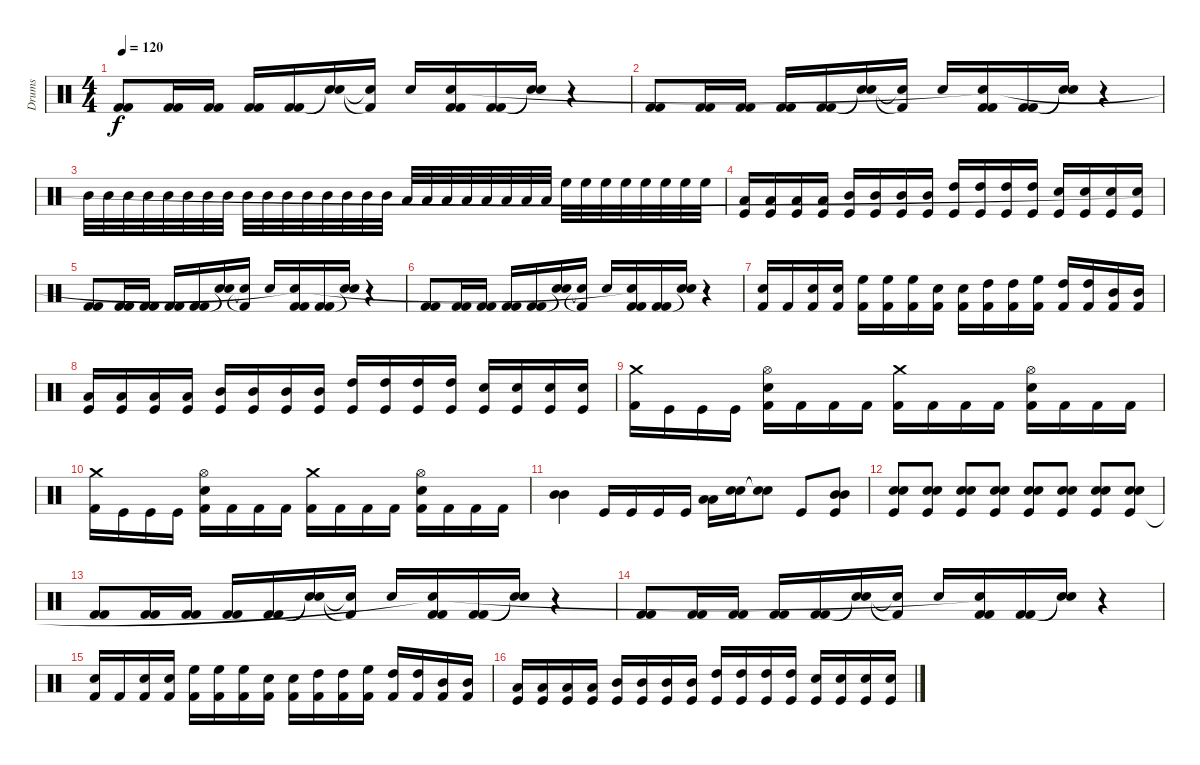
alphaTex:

\track ("Drums" "Drums") {instrument percussion}
\staff {score}
\articulation defaults
\ts (4 4)
\tempo 120
\clef neutral
\ks c
("Kick (hit) 2" "Kick (hit) 2").8{dy f} ("Kick (hit) 2" "Kick (hit) 2").16 ("Kick (hit) 2" "Kick (hit) 2").16 ("Kick (hit) 2" "Kick (hit) 2").16 ("Kick (hit) 2" "Kick (hit) 2").16 ("Snare (hit)"{t} "Snare (hit)"{t}).16 ("Kick (hit) 2"{t} "Snare (hit)"{t}).16 "Snare (hit) 2".16 ("Kick (hit) 2" "Kick (hit) 2" "Snare (hit)").16 ("Kick (hit) 2" "Kick (hit) 2").16 ("Snare (hit)"{t} "Snare (hit)"{t}).16 r.4 |
("Kick (hit) 2" "Kick (hit) 2").8 ("Kick (hit) 2" "Kick (hit) 2").16 ("Kick (hit) 2" "Kick (hit) 2").16 ("Kick (hit) 2" "Kick (hit) 2").16 ("Kick (hit) 2" "Kick (hit) 2").16 ("Snare (hit)"{t} "Snare (hit)"{t}).16 ("Kick (hit) 2"{t} "Snare (hit)"{t}).16 "Snare (hit) 2".16 ("Kick (hit) 2" "Kick (hit) 2" "Snare (hit)"{t}).16 ("Kick (hit) 2" "Kick (hit) 2").16 ("Snare (hit)"{t} "Snare (hit)"{t}).16 r.4 |
"Mid Tom (hit)".32 "Mid Tom (hit)".32 "Mid Tom (hit)".32 "Mid Tom (hit)".32 "Mid Tom (hit)".32 "Mid Tom (hit)".32 "Mid Tom (hit)".32 "Mid Tom (hit)".32 "Mid Tom (hit)".32 "Mid Tom (hit)".32 "Mid Tom (hit)".32 "Mid Tom (hit)".32 "Mid Tom (hit)".32 "Mid Tom (hit)".32 "Mid Tom (hit)".32 "Mid Tom (hit)".32 "Low Tom (hit)".32 "Low Tom (hit)".32 "Low Tom (hit)".32 "Low Tom (hit)".32 "Low Tom (hit)".32 "Low Tom (hit)".32 "Low Tom (hit)".32 "Low Tom (hit)".32 "High Floor Tom (hit)".32 "High Floor Tom (hit)".32 "High Floor Tom (hit)".32 "High Floor Tom (hit)".32 "High Floor Tom (hit)".32 "High Floor Tom (hit)".32 "High Floor Tom (hit)".32 "High Floor Tom (hit)".32 |
("Kick (hit)" "Low Tom (hit)").16 ("Kick (hit)" "Low Tom (hit)").16 ("Kick (hit)" "Low Tom (hit)").16 ("Kick (hit)" "Low Tom (hit)").16 ("Kick (hit)" "Mid Tom (hit)").16 ("Kick (hit)" "Mid Tom (hit)").16 ("Kick (hit)" "Mid Tom (hit)").16 ("Kick (hit)" "Mid Tom (hit)").16 ("Kick (hit)" "High Tom (hit)").16 ("Kick (hit)" "High Tom (hit)").16 ("Kick (hit)" "High Tom (hit)").16 ("Kick (hit)" "High Tom (hit)").16 ("Kick (hit)" "Snare (hit) 2").16 ("Kick (hit)" "Snare (hit) 2").16 ("Kick (hit)" "Snare (hit) 2").16 ("Kick (hit)" "Snare (hit) 2").16 |
("Kick (hit) 2" "Kick (hit) 2").8 ("Kick (hit) 2" "Kick (hit) 2").16 ("Kick (hit) 2" "Kick (hit) 2").16 ("Kick (hit) 2" "Kick (hit) 2").16 ("Kick (hit) 2" "Kick (hit) 2").16 ("Snare (hit)"{t} "Snare (hit)"{t}).16 ("Kick (hit) 2"{t} "Snare (hit)"{t}).16 "Snare (hit) 2".16 ("Kick (hit) 2" "Kick (hit) 2" "Snare (hit)"{t}).16 ("Kick (hit) 2" "Kick (hit) 2").16 ("Snare (hit)"{t} "Snare (hit)"{t}).16 r.4 |
("Kick (hit) 2" "Kick (hit) 2").8 ("Kick (hit) 2" "Kick (hit) 2").16 ("Kick (hit) 2" "Kick (hit) 2").16 ("Kick (hit) 2" "Kick (hit) 2").16 ("Kick (hit) 2" "Kick (hit) 2").16 ("Snare (hit)"{t} "Snare (hit)"{t}).16 ("Kick (hit) 2"{t} "Snare (hit)"{t}).16 "Snare (hit) 2".16 ("Kick (hit) 2" "Kick (hit) 2" "Snare (hit)"{t}).16 ("Kick (hit) 2" "Kick (hit) 2").16 ("Snare (hit)"{t} "Snare (hit)"{t}).16 r.4 |
("Snare (hit) 2" "Kick (hit) 2").16 "Kick (hit) 2".16 ("Snare (hit) 2" "Kick (hit) 2").16 ("Snare (hit) 2" "Kick (hit) 2").16 ("High Floor Tom (hit)" "Kick (hit) 2").16 ("High Floor Tom (hit)" "Kick (hit) 2").16 ("High Floor Tom (hit)" "Kick (hit) 2").16 ("Snare (hit) 2" "Kick (hit) 2").16 ("Snare (hit) 2" "Kick (hit) 2").16 ("High Tom (hit)" "Kick (hit) 2").16 ("High Tom (hit)" "Kick (hit) 2").16 ("High Floor Tom (hit)" "Kick (hit) 2").16 ("High Tom (hit)" "Kick (hit) 2").16 ("High Tom (hit)" "Kick (hit) 2").16 ("Mid Tom (hit)" "Kick (hit) 2").16 ("Mid Tom (hit)" "Kick (hit) 2").16 |
("Kick (hit)" "Low Tom (hit)").16 ("Kick (hit)" "Low Tom (hit)").16 ("Kick (hit)" "Low Tom (hit)").16 ("Kick (hit)" "Low Tom (hit)").16 ("Kick (hit)" "Mid Tom (hit)").16 ("Kick (hit)" "Mid Tom (hit)").16 ("Kick (hit)" "Mid Tom (hit)").16 ("Kick (hit)" "Mid Tom (hit)").16 ("Kick (hit)" "High Tom (hit)").16 ("Kick (hit)" "High Tom (hit)").16 ("Kick (hit)" "High Tom (hit)").16 ("Kick (hit)" "High Tom (hit)").16 ("Kick (hit)" "Snare (hit) 2").16 ("Kick (hit)" "Snare (hit) 2").16 ("Kick (hit)" "Snare (hit) 2").16 ("Kick (hit)" "Snare (hit) 2").16 |
("Crash medium (hit)" "Kick (hit) 2").16 "Kick (hit)".16 "Kick (hit)".16 "Kick (hit)".16 ("Snare (hit) 2" "Hi-Hat (open)" "Kick (hit) 2").16 "Kick (hit) 2".16 "Kick (hit) 2".16 "Kick (hit) 2".16 ("Crash medium (hit)" "Kick (hit) 2").16 "Kick (hit) 2".16 "Kick (hit) 2".16 "Kick (hit) 2".16 ("Snare (hit) 2" "Hi-Hat (open)" "Kick (hit) 2").16 "Kick (hit) 2".16 "Kick (hit) 2".16 "Kick (hit) 2".16 |
("Crash medium (hit)" "Kick (hit) 2").16 "Kick (hit)".16 "Kick (hit)".16 "Kick (hit)".16 ("Snare (hit) 2" "Hi-Hat (open)" "Kick (hit) 2").16 "Kick (hit) 2".16 "Kick (hit) 2".16 "Kick (hit) 2".16 ("Crash medium (hit)" "Kick (hit) 2").16 "Kick (hit) 2".16 "Kick (hit) 2".16 "Kick (hit) 2".16 ("Snare (hit) 2" "Hi-Hat (open)" "Kick (hit) 2").16 "Kick (hit) 2".16 "Kick (hit) 2".16 "Kick (hit) 2".16 |
("Mid Tom (hit)" "Mid Tom (hit)").4 "Kick (hit)".16 "Kick (hit)".16 "Kick (hit)".16 "Kick (hit)".16 ("Low Tom (hit)" "Low Tom (hit)").16 ("Snare (hit) 2" "Snare (hit) 2").16 ("Snare (hit)"{t} "Snare (hit)"{t}).8 "Kick (hit)".8 ("Mid Tom (hit)" "Mid Tom (hit)" "Kick (hit)").8 |
("Snare (hit) 2" "Snare (hit) 2" "Kick (hit)").8{volume 3} ("Snare (hit) 2" "Snare (hit) 2" "Kick (hit)").8 ("Snare (hit) 2" "Snare (hit) 2" "Kick (hit)").8{volume 8} ("Snare (hit) 2" "Snare (hit) 2" "Kick (hit)").8 ("Snare (hit) 2" "Snare (hit) 2" "Kick (hit)").8{volume 11} ("Snare (hit) 2" "Snare (hit) 2" "Kick (hit)").8 ("Snare (hit) 2" "Snare (hit) 2" "Kick (hit)").8{volume 16} ("Snare (hit) 2" "Snare (hit) 2" "Kick (hit)").8 |
("Kick (hit) 2" "Kick (hit) 2").8 ("Kick (hit) 2" "Kick (hit) 2").16 ("Kick (hit) 2" "Kick (hit) 2").16 ("Kick (hit) 2" "Kick (hit) 2").16 ("Kick (hit) 2" "Kick (hit) 2").16 ("Snare (hit)"{t} "Snare (hit)"{t}).16 ("Kick (hit) 2"{t} "Snare (hit)"{t}).16 "Snare (hit) 2".16 ("Kick (hit) 2" "Kick (hit) 2" "Snare (hit)"{t}).16 ("Kick (hit) 2" "Kick (hit) 2").16 ("Snare (hit)"{t} "Snare (hit)"{t}).16 r.4 |
("Kick (hit) 2" "Kick (hit) 2").8 ("Kick (hit) 2" "Kick (hit) 2").16 ("Kick (hit) 2" "Kick (hit) 2").16 ("Kick (hit) 2" "Kick (hit) 2").16 ("Kick (hit) 2" "Kick (hit) 2").16 ("Snare (hit)"{t} "Snare (hit)"{t}).16 ("Kick (hit) 2"{t} "Snare (hit)"{t}).16 "Snare (hit) 2".16 ("Kick (hit) 2" "Kick (hit) 2" "Snare (hit)"{t}).16 ("Kick (hit) 2" "Kick (hit) 2").16 ("Snare (hit)"{t} "Snare (hit)"{t}).16 r.4 |
("Snare (hit) 2" "Kick (hit) 2").16 "Kick (hit) 2".16 ("Snare (hit) 2" "Kick (hit) 2").16 ("Snare (hit) 2" "Kick (hit) 2").16 ("High Floor Tom (hit)" "Kick (hit) 2").16 ("High Floor Tom (hit)" "Kick (hit) 2").16 ("High Floor Tom (hit)" "Kick (hit) 2").16 ("Snare (hit) 2" "Kick (hit) 2").16 ("Snare (hit) 2" "Kick (hit) 2").16 ("High Tom (hit)" "Kick (hit) 2").16 ("High Tom (hit)" "Kick (hit) 2").16 ("High Floor Tom (hit)" "Kick (hit) 2").16 ("High Tom (hit)" "Kick (hit) 2").16 ("High Tom (hit)" "Kick (hit) 2").16 ("Mid Tom (hit)" "Kick (hit) 2").16 ("Mid Tom (hit)" "Kick (hit) 2").16 |
("Kick (hit)" "Low Tom (hit)").16 ("Kick (hit)" "Low Tom (hit)").16 ("Kick (hit)" "Low Tom (hit)").16 ("Kick (hit)" "Low Tom (hit)").16 ("Kick (hit)" "Mid Tom (hit)").16 ("Kick (hit)" "Mid Tom (hit)").16 ("Kick (hit)" "Mid Tom (hit)").16 ("Kick (hit)" "Mid Tom (hit)").16 ("Kick (hit)" "High Tom (hit)").16 ("Kick (hit)" "High Tom (hit)").16 ("Kick (hit)" "High Tom (hit)").16 ("Kick (hit)" "High Tom (hit)").16 ("Kick (hit)" "Snare (hit) 2").16 ("Kick (hit)" "Snare (hit) 2").16 ("Kick (hit)" "Snare (hit) 2").16 ("Kick (hit)" "Snare (hit) 2").16
